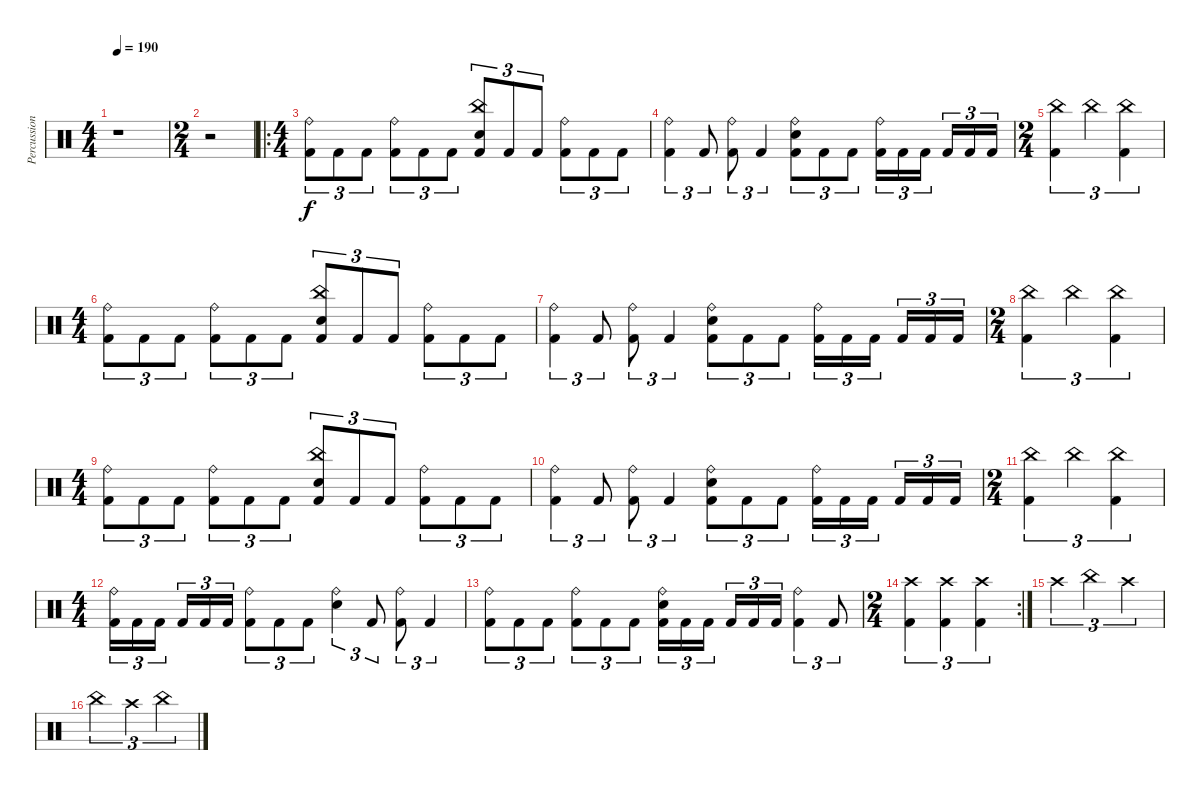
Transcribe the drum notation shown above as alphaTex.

\track ("Percussion" "Percussion") {instrument percussion}
\staff {score}
\articulation defaults
\ts (4 4)
\tempo 190
\clef neutral
\ks c
r.1{dy f} |
\ts (2 4)
r.2 |
\ro
\ts (4 4)
("Ride (bell)" "Kick (hit) 2").8{tu (3 2)} "Kick (hit) 2".8{tu (3 2)} "Kick (hit) 2".8{tu (3 2)} ("Ride (bell)" "Kick (hit) 2").8{tu (3 2)} "Kick (hit) 2".8{tu (3 2)} "Kick (hit) 2".8{tu (3 2)} ("China (hit)" "Snare (hit) 2" "Kick (hit) 2").8{tu (3 2)} "Kick (hit) 2".8{tu (3 2)} "Kick (hit) 2".8{tu (3 2)} ("Ride (bell)" "Kick (hit) 2").8{tu (3 2)} "Kick (hit) 2".8{tu (3 2)} "Kick (hit) 2".8{tu (3 2)} |
("Ride (bell)" "Kick (hit) 2").4{tu (3 2)} "Kick (hit) 2".8{tu (3 2)} ("Ride (bell)" "Kick (hit) 2").8{tu (3 2)} "Kick (hit) 2".4{tu (3 2)} ("Ride (bell)" "Snare (hit) 2" "Kick (hit) 2").8{tu (3 2)} "Kick (hit) 2".8{tu (3 2)} "Kick (hit) 2".8{tu (3 2)} ("Ride (bell)" "Kick (hit) 2").16{tu (3 2)} "Kick (hit) 2".16{tu (3 2)} "Kick (hit) 2".16{tu (3 2)} "Kick (hit) 2".16{tu (3 2)} "Kick (hit) 2".16{tu (3 2)} "Kick (hit) 2".16{tu (3 2)} |
\ts (2 4)
("Kick (hit) 2" "China (hit)").4{tu (3 2)} "China (hit)".4{tu (3 2)} ("Kick (hit) 2" "China (hit)").4{tu (3 2)} |
\ts (4 4)
("Ride (bell)" "Kick (hit) 2").8{tu (3 2)} "Kick (hit) 2".8{tu (3 2)} "Kick (hit) 2".8{tu (3 2)} ("Ride (bell)" "Kick (hit) 2").8{tu (3 2)} "Kick (hit) 2".8{tu (3 2)} "Kick (hit) 2".8{tu (3 2)} ("China (hit)" "Snare (hit) 2" "Kick (hit) 2").8{tu (3 2)} "Kick (hit) 2".8{tu (3 2)} "Kick (hit) 2".8{tu (3 2)} ("Ride (bell)" "Kick (hit) 2").8{tu (3 2)} "Kick (hit) 2".8{tu (3 2)} "Kick (hit) 2".8{tu (3 2)} |
("Ride (bell)" "Kick (hit) 2").4{tu (3 2)} "Kick (hit) 2".8{tu (3 2)} ("Ride (bell)" "Kick (hit) 2").8{tu (3 2)} "Kick (hit) 2".4{tu (3 2)} ("Ride (bell)" "Snare (hit) 2" "Kick (hit) 2").8{tu (3 2)} "Kick (hit) 2".8{tu (3 2)} "Kick (hit) 2".8{tu (3 2)} ("Ride (bell)" "Kick (hit) 2").16{tu (3 2)} "Kick (hit) 2".16{tu (3 2)} "Kick (hit) 2".16{tu (3 2)} "Kick (hit) 2".16{tu (3 2)} "Kick (hit) 2".16{tu (3 2)} "Kick (hit) 2".16{tu (3 2)} |
\ts (2 4)
("Kick (hit) 2" "China (hit)").4{tu (3 2)} "China (hit)".4{tu (3 2)} ("Kick (hit) 2" "China (hit)").4{tu (3 2)} |
\ts (4 4)
("Ride (bell)" "Kick (hit) 2").8{tu (3 2)} "Kick (hit) 2".8{tu (3 2)} "Kick (hit) 2".8{tu (3 2)} ("Ride (bell)" "Kick (hit) 2").8{tu (3 2)} "Kick (hit) 2".8{tu (3 2)} "Kick (hit) 2".8{tu (3 2)} ("China (hit)" "Snare (hit) 2" "Kick (hit) 2").8{tu (3 2)} "Kick (hit) 2".8{tu (3 2)} "Kick (hit) 2".8{tu (3 2)} ("Ride (bell)" "Kick (hit) 2").8{tu (3 2)} "Kick (hit) 2".8{tu (3 2)} "Kick (hit) 2".8{tu (3 2)} |
("Ride (bell)" "Kick (hit) 2").4{tu (3 2)} "Kick (hit) 2".8{tu (3 2)} ("Ride (bell)" "Kick (hit) 2").8{tu (3 2)} "Kick (hit) 2".4{tu (3 2)} ("Ride (bell)" "Snare (hit) 2" "Kick (hit) 2").8{tu (3 2)} "Kick (hit) 2".8{tu (3 2)} "Kick (hit) 2".8{tu (3 2)} ("Ride (bell)" "Kick (hit) 2").16{tu (3 2)} "Kick (hit) 2".16{tu (3 2)} "Kick (hit) 2".16{tu (3 2)} "Kick (hit) 2".16{tu (3 2)} "Kick (hit) 2".16{tu (3 2)} "Kick (hit) 2".16{tu (3 2)} |
\ts (2 4)
("Kick (hit) 2" "China (hit)").4{tu (3 2)} "China (hit)".4{tu (3 2)} ("Kick (hit) 2" "China (hit)").4{tu (3 2)} |
\ts (4 4)
("Ride (bell)" "Kick (hit) 2").16{tu (3 2)} "Kick (hit) 2".16{tu (3 2)} "Kick (hit) 2".16{tu (3 2)} "Kick (hit) 2".16{tu (3 2)} "Kick (hit) 2".16{tu (3 2)} "Kick (hit) 2".16{tu (3 2)} ("Ride (bell)" "Kick (hit) 2").8{tu (3 2)} "Kick (hit) 2".8{tu (3 2)} "Kick (hit) 2".8{tu (3 2)} ("Ride (bell)" "Snare (hit) 2").4{tu (3 2)} "Kick (hit) 2".8{tu (3 2)} ("Ride (bell)" "Kick (hit) 2").8{tu (3 2)} "Kick (hit) 2".4{tu (3 2)} |
("Ride (bell)" "Kick (hit) 2").8{tu (3 2)} "Kick (hit) 2".8{tu (3 2)} "Kick (hit) 2".8{tu (3 2)} ("Ride (bell)" "Kick (hit) 2").8{tu (3 2)} "Kick (hit) 2".8{tu (3 2)} "Kick (hit) 2".8{tu (3 2)} ("Ride (bell)" "Snare (hit) 2" "Kick (hit) 2").16{tu (3 2)} "Kick (hit) 2".16{tu (3 2)} "Kick (hit) 2".16{tu (3 2)} "Kick (hit) 2".16{tu (3 2)} "Kick (hit) 2".16{tu (3 2)} "Kick (hit) 2".16{tu (3 2)} ("Ride (bell)" "Kick (hit) 2").4{tu (3 2)} "Kick (hit) 2".8{tu (3 2)} |
\rc 2
\ts (2 4)
("Crash high (hit)" "Kick (hit) 2").4{tu (3 2)} ("Crash high (hit)" "Kick (hit) 2").4{tu (3 2)} ("Crash high (hit)" "Kick (hit) 2").4{tu (3 2)} |
"Crash high (hit)".4{tu (3 2)} "China (hit)".4{tu (3 2)} "Crash high (hit)".4{tu (3 2)} |
"China (hit)".4{tu (3 2)} "Crash high (hit)".4{tu (3 2)} "China (hit)".4{tu (3 2)}
